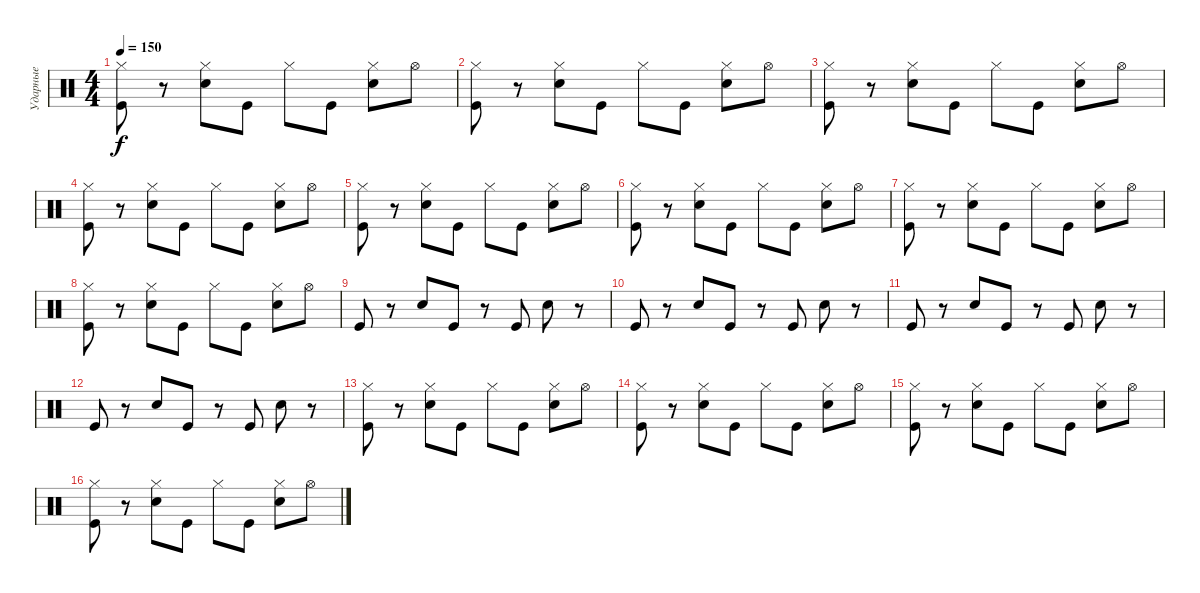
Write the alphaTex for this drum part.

\track ("Ударные" "Ударные") {instrument percussion}
\staff {score}
\articulation defaults
\ts (4 4)
\tempo 150
\clef neutral
\ks c
("Kick (hit)" "Hi-Hat (closed)").8{dy f} r.8 ("Hand Clap (hit)" "Hi-Hat (closed)").8 "Kick (hit)".8 "Hi-Hat (closed)".8 "Kick (hit)".8 ("Hand Clap (hit)" "Hi-Hat (closed)").8 "Hi-Hat (open)".8 |
("Kick (hit)" "Hi-Hat (closed)").8 r.8 ("Hand Clap (hit)" "Hi-Hat (closed)").8 "Kick (hit)".8 "Hi-Hat (closed)".8 "Kick (hit)".8 ("Hand Clap (hit)" "Hi-Hat (closed)").8 "Hi-Hat (open)".8 |
("Kick (hit)" "Hi-Hat (closed)").8 r.8 ("Hand Clap (hit)" "Hi-Hat (closed)").8 "Kick (hit)".8 "Hi-Hat (closed)".8 "Kick (hit)".8 ("Hand Clap (hit)" "Hi-Hat (closed)").8 "Hi-Hat (open)".8 |
("Kick (hit)" "Hi-Hat (closed)").8 r.8 ("Hand Clap (hit)" "Hi-Hat (closed)").8 "Kick (hit)".8 "Hi-Hat (closed)".8 "Kick (hit)".8 ("Hand Clap (hit)" "Hi-Hat (closed)").8 "Hi-Hat (open)".8 |
("Kick (hit)" "Hi-Hat (closed)").8 r.8 ("Hand Clap (hit)" "Hi-Hat (closed)").8 "Kick (hit)".8 "Hi-Hat (closed)".8 "Kick (hit)".8 ("Hand Clap (hit)" "Hi-Hat (closed)").8 "Hi-Hat (open)".8 |
("Kick (hit)" "Hi-Hat (closed)").8 r.8 ("Hand Clap (hit)" "Hi-Hat (closed)").8 "Kick (hit)".8 "Hi-Hat (closed)".8 "Kick (hit)".8 ("Hand Clap (hit)" "Hi-Hat (closed)").8 "Hi-Hat (open)".8 |
("Kick (hit)" "Hi-Hat (closed)").8 r.8 ("Hand Clap (hit)" "Hi-Hat (closed)").8 "Kick (hit)".8 "Hi-Hat (closed)".8 "Kick (hit)".8 ("Hand Clap (hit)" "Hi-Hat (closed)").8 "Hi-Hat (open)".8 |
("Kick (hit)" "Hi-Hat (closed)").8 r.8 ("Hand Clap (hit)" "Hi-Hat (closed)").8 "Kick (hit)".8 "Hi-Hat (closed)".8 "Kick (hit)".8 ("Hand Clap (hit)" "Hi-Hat (closed)").8 "Hi-Hat (open)".8 |
"Kick (hit)".8 r.8 "Hand Clap (hit)".8 "Kick (hit)".8 r.8 "Kick (hit)".8 "Hand Clap (hit)".8 r.8 |
"Kick (hit)".8 r.8 "Hand Clap (hit)".8 "Kick (hit)".8 r.8 "Kick (hit)".8 "Hand Clap (hit)".8 r.8 |
"Kick (hit)".8 r.8 "Hand Clap (hit)".8 "Kick (hit)".8 r.8 "Kick (hit)".8 "Hand Clap (hit)".8 r.8 |
"Kick (hit)".8 r.8 "Hand Clap (hit)".8 "Kick (hit)".8 r.8 "Kick (hit)".8 "Hand Clap (hit)".8 r.8 |
("Kick (hit)" "Hi-Hat (closed)").8 r.8 ("Hand Clap (hit)" "Hi-Hat (closed)").8 "Kick (hit)".8 "Hi-Hat (closed)".8 "Kick (hit)".8 ("Hand Clap (hit)" "Hi-Hat (closed)").8 "Hi-Hat (open)".8 |
("Kick (hit)" "Hi-Hat (closed)").8 r.8 ("Hand Clap (hit)" "Hi-Hat (closed)").8 "Kick (hit)".8 "Hi-Hat (closed)".8 "Kick (hit)".8 ("Hand Clap (hit)" "Hi-Hat (closed)").8 "Hi-Hat (open)".8 |
("Kick (hit)" "Hi-Hat (closed)").8 r.8 ("Hand Clap (hit)" "Hi-Hat (closed)").8 "Kick (hit)".8 "Hi-Hat (closed)".8 "Kick (hit)".8 ("Hand Clap (hit)" "Hi-Hat (closed)").8 "Hi-Hat (open)".8 |
("Kick (hit)" "Hi-Hat (closed)").8 r.8 ("Hand Clap (hit)" "Hi-Hat (closed)").8 "Kick (hit)".8 "Hi-Hat (closed)".8 "Kick (hit)".8 ("Hand Clap (hit)" "Hi-Hat (closed)").8 "Hi-Hat (open)".8
